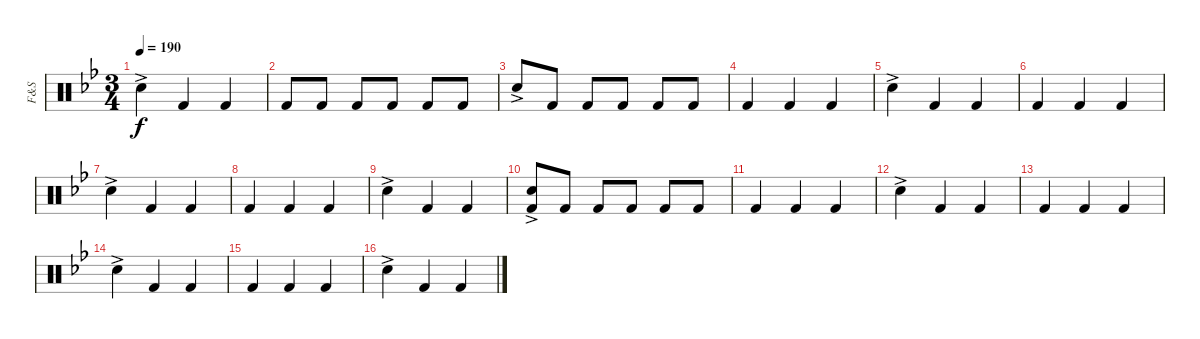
\track ("F&S" "F&S") {instrument percussion}
\staff {score}
\articulation defaults
\ts (3 4)
\tempo 190
\clef neutral
\ks bb "Snare (hit) 2"{ac}.4{dy f} "Kick (hit) 2".4 "Kick (hit) 2".4
|
"Kick (hit) 2".8 "Kick (hit) 2".8 "Kick (hit) 2".8 "Kick (hit) 2".8 "Kick (hit) 2".8 "Kick (hit) 2".8 |
"Snare (hit) 2"{ac}.8 "Kick (hit) 2".8 "Kick (hit) 2".8 "Kick (hit) 2".8 "Kick (hit) 2".8 "Kick (hit) 2".8 |
"Kick (hit) 2".4 "Kick (hit) 2".4 "Kick (hit) 2".4 |
"Snare (hit) 2"{ac}.4 "Kick (hit) 2".4 "Kick (hit) 2".4 |
"Kick (hit) 2".4 "Kick (hit) 2".4 "Kick (hit) 2".4 |
"Snare (hit) 2"{ac}.4 "Kick (hit) 2".4 "Kick (hit) 2".4 |
"Kick (hit) 2".4 "Kick (hit) 2".4 "Kick (hit) 2".4 |
"Snare (hit) 2"{ac}.4 "Kick (hit) 2".4 "Kick (hit) 2".4 |
("Kick (hit) 2" "Snare (hit) 2"{ac}).8 "Kick (hit) 2".8 "Kick (hit) 2".8 "Kick (hit) 2".8 "Kick (hit) 2".8 "Kick (hit) 2".8 |
"Kick (hit) 2".4 "Kick (hit) 2".4 "Kick (hit) 2".4 |
"Snare (hit) 2"{ac}.4 "Kick (hit) 2".4 "Kick (hit) 2".4 |
"Kick (hit) 2".4 "Kick (hit) 2".4 "Kick (hit) 2".4 |
"Snare (hit) 2"{ac}.4 "Kick (hit) 2".4 "Kick (hit) 2".4 |
"Kick (hit) 2".4 "Kick (hit) 2".4 "Kick (hit) 2".4 |
"Snare (hit) 2"{ac}.4 "Kick (hit) 2".4 "Kick (hit) 2".4
